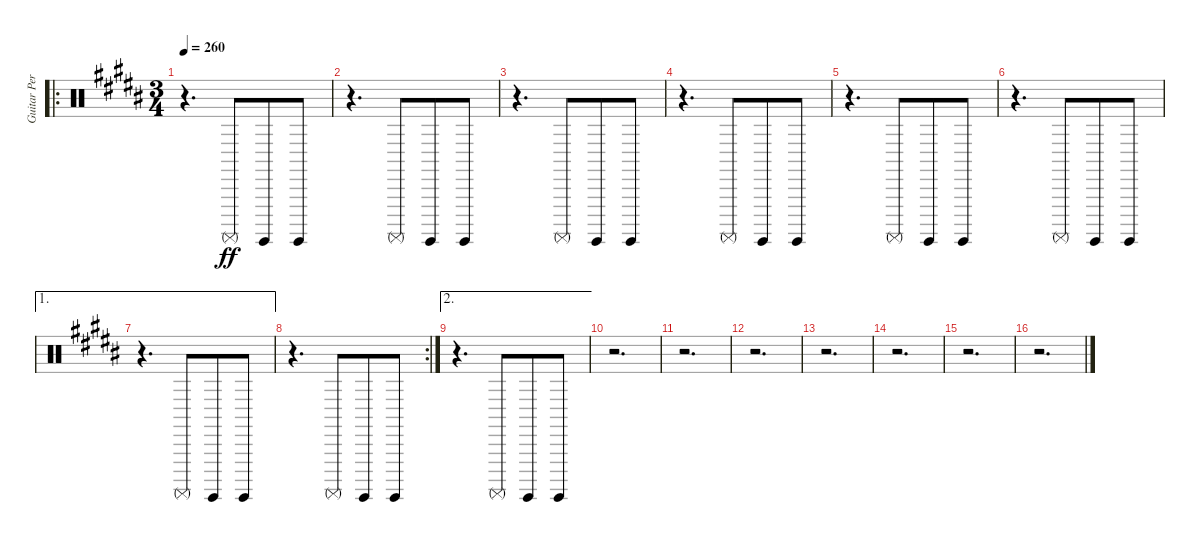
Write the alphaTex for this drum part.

\track ("Guitar Percussion Noises" "Guitar Per") {instrument percussion}
\staff {score}
\articulation defaults
\ro
\ts (3 4)
\tempo 260
\clef neutral
\ks b
r.4{d dy ff} "Surdo (mute)".8{beam merge} "Surdo (hit)".8 "Surdo (hit)".8 |
r.4{d} "Surdo (mute)".8{beam merge} "Surdo (hit)".8 "Surdo (hit)".8 |
r.4{d} "Surdo (mute)".8{beam merge} "Surdo (hit)".8 "Surdo (hit)".8 |
r.4{d} "Surdo (mute)".8{beam merge} "Surdo (hit)".8 "Surdo (hit)".8 |
r.4{d} "Surdo (mute)".8{beam merge} "Surdo (hit)".8 "Surdo (hit)".8 |
r.4{d} "Surdo (mute)".8{beam merge} "Surdo (hit)".8 "Surdo (hit)".8 |
\ae 1
r.4{d} "Surdo (mute)".8{beam merge} "Surdo (hit)".8 "Surdo (hit)".8 |
\rc 2
r.4{d} "Surdo (mute)".8{beam merge} "Surdo (hit)".8 "Surdo (hit)".8 |
\ae 2
r.4{d} "Surdo (mute)".8{beam merge} "Surdo (hit)".8 "Surdo (hit)".8 |
r.2{d} |
r.2{d} |
r.2{d} |
r.2{d} |
r.2{d} |
r.2{d} |
r.2{d}
